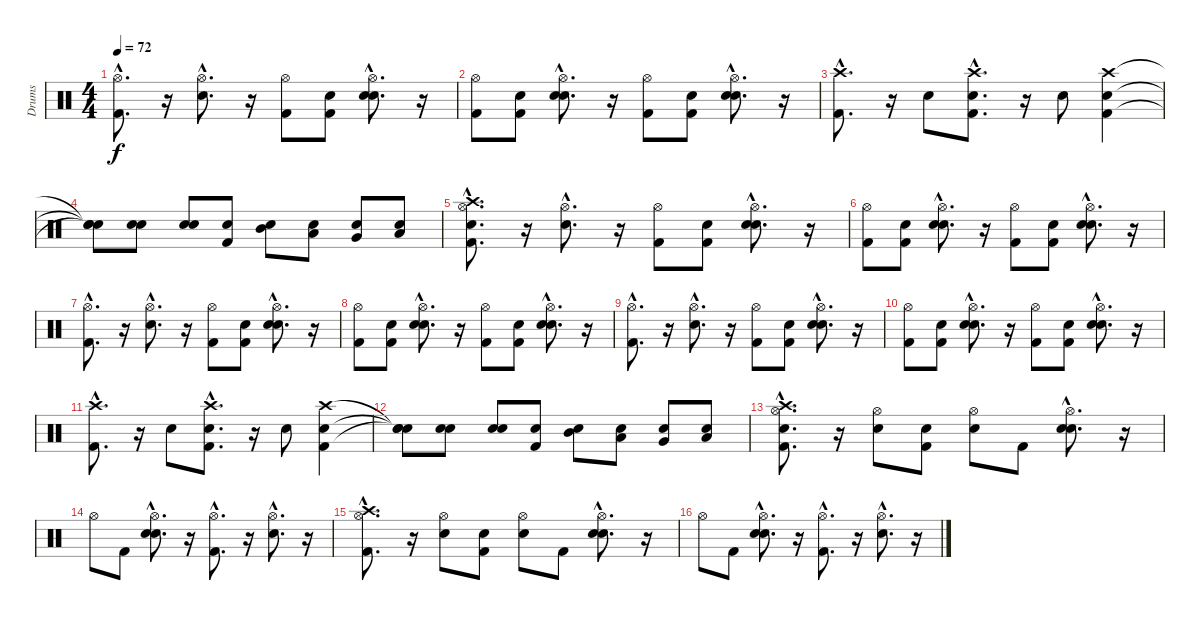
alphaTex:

\track ("Drums" "Drums") {instrument percussion}
\staff {score}
\articulation defaults
\ts (4 4)
\tempo 72
\clef neutral
\ks c
("Kick (hit) 2"{hac} "Hi-Hat (open)"{hac}).8{d dy f} r.16 ("Snare (hit) 2"{hac} "Hi-Hat (open)"{hac}).8{d} r.16 ("Kick (hit) 2" "Hi-Hat (open)").8 ("Snare (hit)" "Kick (hit) 2").8 ("Snare (hit)"{hac} "Snare (hit) 2"{hac} "Hi-Hat (open)"{hac}).8{d} r.16 |
("Kick (hit) 2" "Hi-Hat (open)").8 ("Snare (hit)" "Kick (hit) 2").8 ("Snare (hit)"{hac} "Snare (hit) 2"{hac} "Hi-Hat (open)"{hac}).8{d} r.16 ("Kick (hit) 2" "Hi-Hat (open)").8 ("Snare (hit)" "Kick (hit) 2").8 ("Snare (hit)"{hac} "Snare (hit) 2"{hac} "Hi-Hat (open)"{hac}).8{d} r.16 |
("Kick (hit) 2"{hac} "Crash high (hit)"{hac}).8{d} r.16 "Snare (hit) 2".8 ("Snare (hit)"{hac} "Kick (hit) 2"{hac} "Crash high (hit)"{hac}).8{d} r.16 "Snare (hit) 2".8 ("Snare (hit)" "Kick (hit) 2" "Crash high (hit)").4 |
("Snare (hit)"{t} "Snare (hit)"{t} "Snare (hit)"{t}).8 ("Snare (hit)" "Snare (hit) 2").8 ("Snare (hit)" "Snare (hit) 2").8 ("Snare (hit)" "Kick (hit) 2").8 ("Snare (hit)" "Mid Tom (hit)").8 ("Snare (hit)" "Low Tom (hit)").8 ("Snare (hit)" "Very Low Tom (hit)").8 ("Snare (hit)" "Low Floor Tom (hit)").8 |
("Snare (hit)"{hac} "Kick (hit) 2"{hac} "Hi-Hat (open)"{hac} "Crash high (hit)"{hac}).8{d} r.16 ("Snare (hit) 2"{hac} "Hi-Hat (open)"{hac}).8{d} r.16 ("Kick (hit) 2" "Hi-Hat (open)").8 ("Snare (hit)" "Kick (hit) 2").8 ("Snare (hit)"{hac} "Snare (hit) 2"{hac} "Hi-Hat (open)"{hac}).8{d} r.16 |
("Kick (hit) 2" "Hi-Hat (open)").8 ("Snare (hit)" "Kick (hit) 2").8 ("Snare (hit)"{hac} "Snare (hit) 2"{hac} "Hi-Hat (open)"{hac}).8{d} r.16 ("Kick (hit) 2" "Hi-Hat (open)").8 ("Snare (hit)" "Kick (hit) 2").8 ("Snare (hit)"{hac} "Snare (hit) 2"{hac} "Hi-Hat (open)"{hac}).8{d} r.16 |
("Kick (hit) 2"{hac} "Hi-Hat (open)"{hac}).8{d} r.16 ("Snare (hit) 2"{hac} "Hi-Hat (open)"{hac}).8{d} r.16 ("Kick (hit) 2" "Hi-Hat (open)").8 ("Snare (hit)" "Kick (hit) 2").8 ("Snare (hit)"{hac} "Snare (hit) 2"{hac} "Hi-Hat (open)"{hac}).8{d} r.16 |
("Kick (hit) 2" "Hi-Hat (open)").8 ("Snare (hit)" "Kick (hit) 2").8 ("Snare (hit)"{hac} "Snare (hit) 2"{hac} "Hi-Hat (open)"{hac}).8{d} r.16 ("Kick (hit) 2" "Hi-Hat (open)").8 ("Snare (hit)" "Kick (hit) 2").8 ("Snare (hit)"{hac} "Snare (hit) 2"{hac} "Hi-Hat (open)"{hac}).8{d} r.16 |
("Kick (hit) 2"{hac} "Hi-Hat (open)"{hac}).8{d} r.16 ("Snare (hit) 2"{hac} "Hi-Hat (open)"{hac}).8{d} r.16 ("Kick (hit) 2" "Hi-Hat (open)").8 ("Snare (hit)" "Kick (hit) 2").8 ("Snare (hit)"{hac} "Snare (hit) 2"{hac} "Hi-Hat (open)"{hac}).8{d} r.16 |
("Kick (hit) 2" "Hi-Hat (open)").8 ("Snare (hit)" "Kick (hit) 2").8 ("Snare (hit)"{hac} "Snare (hit) 2"{hac} "Hi-Hat (open)"{hac}).8{d} r.16 ("Kick (hit) 2" "Hi-Hat (open)").8 ("Snare (hit)" "Kick (hit) 2").8 ("Snare (hit)"{hac} "Snare (hit) 2"{hac} "Hi-Hat (open)"{hac}).8{d} r.16 |
("Kick (hit) 2"{hac} "Crash high (hit)"{hac}).8{d} r.16 "Snare (hit) 2".8 ("Snare (hit)"{hac} "Kick (hit) 2"{hac} "Crash high (hit)"{hac}).8{d} r.16 "Snare (hit) 2".8 ("Snare (hit)" "Kick (hit) 2" "Crash high (hit)").4 |
("Snare (hit)"{t} "Snare (hit)"{t} "Snare (hit)"{t}).8 ("Snare (hit)" "Snare (hit) 2").8 ("Snare (hit)" "Snare (hit) 2").8 ("Snare (hit)" "Kick (hit) 2").8 ("Snare (hit)" "Mid Tom (hit)").8 ("Snare (hit)" "Low Tom (hit)").8 ("Snare (hit)" "Very Low Tom (hit)").8 ("Snare (hit)" "Low Floor Tom (hit)").8 |
("Snare (hit)"{hac} "Kick (hit) 2"{hac} "Hi-Hat (open)"{hac} "Crash high (hit)"{hac}).8{d} r.16 ("Snare (hit) 2" "Hi-Hat (open)").8 ("Snare (hit)" "Kick (hit) 2").8 ("Snare (hit)" "Hi-Hat (open)").8 "Kick (hit) 2".8 ("Snare (hit)"{hac} "Snare (hit) 2"{hac} "Hi-Hat (open)"{hac}).8{d} r.16 |
"Hi-Hat (open)".8 "Kick (hit) 2".8 ("Snare (hit)"{hac} "Snare (hit) 2"{hac} "Hi-Hat (open)"{hac}).8{d} r.16 ("Kick (hit) 2"{hac} "Hi-Hat (open)"{hac}).8{d} r.16 ("Snare (hit) 2"{hac} "Hi-Hat (open)"{hac}).8{d} r.16 |
("Kick (hit) 2"{hac} "Hi-Hat (open)"{hac} "Crash high (hit)"{hac}).8{d} r.16 ("Snare (hit) 2" "Hi-Hat (open)").8 ("Snare (hit)" "Kick (hit) 2").8 ("Snare (hit)" "Hi-Hat (open)").8 "Kick (hit) 2".8 ("Snare (hit)"{hac} "Snare (hit) 2"{hac} "Hi-Hat (open)"{hac}).8{d} r.16 |
"Hi-Hat (open)".8 "Kick (hit) 2".8 ("Snare (hit)"{hac} "Snare (hit) 2"{hac} "Hi-Hat (open)"{hac}).8{d} r.16 ("Kick (hit) 2"{hac} "Hi-Hat (open)"{hac}).8{d} r.16 ("Snare (hit) 2"{hac} "Hi-Hat (open)"{hac}).8{d} r.16
